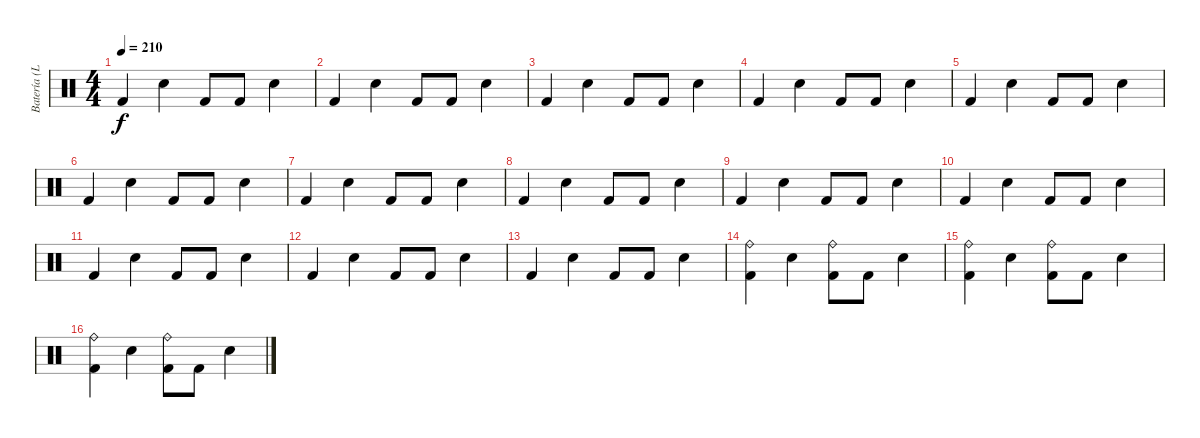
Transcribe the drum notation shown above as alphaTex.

\track ("Batería (Leo)" "Batería (L") {instrument percussion}
\staff {score}
\articulation defaults
\ts (4 4)
\tempo 210
\clef neutral
\ks c "Kick (hit) 2".4{dy f} "Snare (hit) 2".4 "Kick (hit) 2".8 "Kick (hit) 2".8 "Snare (hit) 2".4
|
"Kick (hit) 2".4 "Snare (hit) 2".4 "Kick (hit) 2".8 "Kick (hit) 2".8 "Snare (hit) 2".4 |
"Kick (hit) 2".4 "Snare (hit) 2".4 "Kick (hit) 2".8 "Kick (hit) 2".8 "Snare (hit) 2".4 |
"Kick (hit) 2".4 "Snare (hit) 2".4 "Kick (hit) 2".8 "Kick (hit) 2".8 "Snare (hit) 2".4 |
"Kick (hit) 2".4 "Snare (hit) 2".4 "Kick (hit) 2".8 "Kick (hit) 2".8 "Snare (hit) 2".4 |
"Kick (hit) 2".4 "Snare (hit) 2".4 "Kick (hit) 2".8 "Kick (hit) 2".8 "Snare (hit) 2".4 |
"Kick (hit) 2".4 "Snare (hit) 2".4 "Kick (hit) 2".8 "Kick (hit) 2".8 "Snare (hit) 2".4 |
"Kick (hit) 2".4 "Snare (hit) 2".4 "Kick (hit) 2".8 "Kick (hit) 2".8 "Snare (hit) 2".4 |
"Kick (hit) 2".4 "Snare (hit) 2".4 "Kick (hit) 2".8 "Kick (hit) 2".8 "Snare (hit) 2".4 |
"Kick (hit) 2".4 "Snare (hit) 2".4 "Kick (hit) 2".8 "Kick (hit) 2".8 "Snare (hit) 2".4 |
"Kick (hit) 2".4 "Snare (hit) 2".4 "Kick (hit) 2".8 "Kick (hit) 2".8 "Snare (hit) 2".4 |
"Kick (hit) 2".4 "Snare (hit) 2".4 "Kick (hit) 2".8 "Kick (hit) 2".8 "Snare (hit) 2".4 |
"Kick (hit) 2".4 "Snare (hit) 2".4 "Kick (hit) 2".8 "Kick (hit) 2".8 "Snare (hit) 2".4 |
("Ride (bell)" "Kick (hit) 2").4 "Snare (hit) 2".4 ("Ride (bell)" "Kick (hit) 2").8 "Kick (hit) 2".8 "Snare (hit) 2".4 |
("Ride (bell)" "Kick (hit) 2").4 "Snare (hit) 2".4 ("Ride (bell)" "Kick (hit) 2").8 "Kick (hit) 2".8 "Snare (hit) 2".4 |
("Ride (bell)" "Kick (hit) 2").4 "Snare (hit) 2".4 ("Ride (bell)" "Kick (hit) 2").8 "Kick (hit) 2".8 "Snare (hit) 2".4
